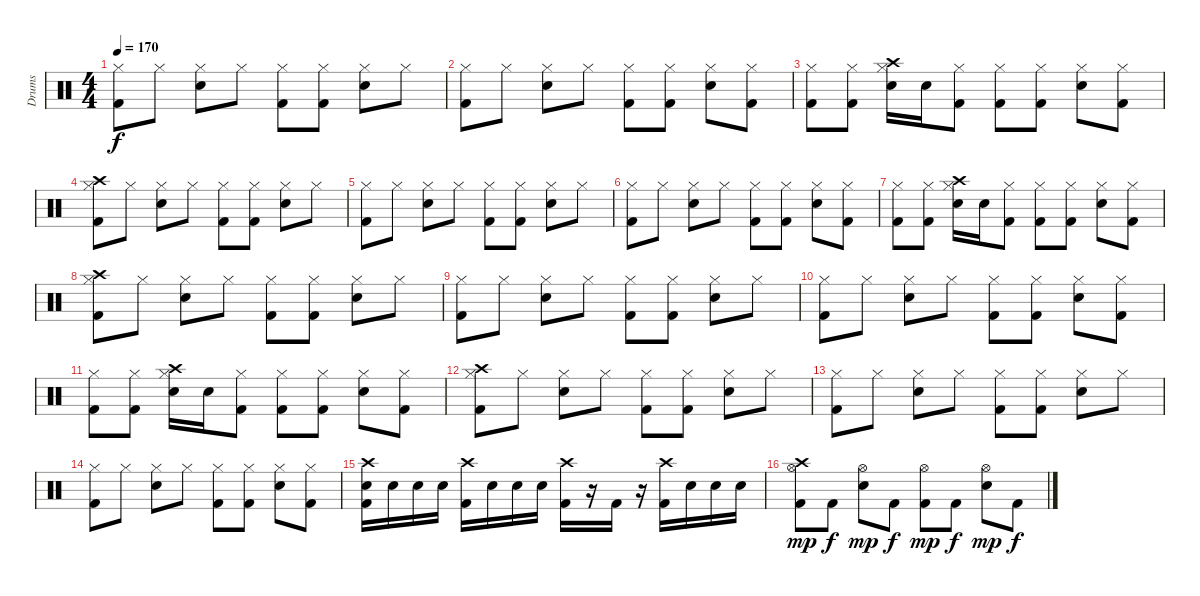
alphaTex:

\track ("Drums" "Drums") {instrument percussion}
\staff {score}
\articulation defaults
\ts (4 4)
\tempo 170
\clef neutral
\ks c
("Hi-Hat (closed)" "Kick (hit) 2").8{dy f} "Hi-Hat (closed)".8 ("Hi-Hat (closed)" "Electric Snare (hit)").8 "Hi-Hat (closed)".8 ("Hi-Hat (closed)" "Kick (hit) 2").8 ("Hi-Hat (closed)" "Kick (hit) 2").8 ("Hi-Hat (closed)" "Electric Snare (hit)").8 "Hi-Hat (closed)".8 |
("Hi-Hat (closed)" "Kick (hit) 2").8 "Hi-Hat (closed)".8 ("Hi-Hat (closed)" "Electric Snare (hit)").8 "Hi-Hat (closed)".8 ("Hi-Hat (closed)" "Kick (hit) 2").8 ("Hi-Hat (closed)" "Kick (hit) 2").8 ("Hi-Hat (closed)" "Electric Snare (hit)").8 ("Hi-Hat (closed)" "Kick (hit) 2").8 |
("Hi-Hat (closed)" "Kick (hit) 2").8 ("Hi-Hat (closed)" "Kick (hit) 2").8 ("Crash high (hit)" "Hi-Hat (closed)" "Electric Snare (hit)").16 "Electric Snare (hit)".16 ("Hi-Hat (closed)" "Kick (hit) 2").8 ("Hi-Hat (closed)" "Kick (hit) 2").8 ("Hi-Hat (closed)" "Kick (hit) 2").8 ("Hi-Hat (closed)" "Electric Snare (hit)").8 ("Hi-Hat (closed)" "Kick (hit) 2").8 |
("Crash high (hit)" "Hi-Hat (closed)" "Kick (hit) 2").8 "Hi-Hat (closed)".8 ("Hi-Hat (closed)" "Electric Snare (hit)").8 "Hi-Hat (closed)".8 ("Hi-Hat (closed)" "Kick (hit) 2").8 ("Hi-Hat (closed)" "Kick (hit) 2").8 ("Hi-Hat (closed)" "Electric Snare (hit)").8 "Hi-Hat (closed)".8 |
("Hi-Hat (closed)" "Kick (hit) 2").8 "Hi-Hat (closed)".8 ("Hi-Hat (closed)" "Electric Snare (hit)").8 "Hi-Hat (closed)".8 ("Hi-Hat (closed)" "Kick (hit) 2").8 ("Hi-Hat (closed)" "Kick (hit) 2").8 ("Hi-Hat (closed)" "Electric Snare (hit)").8 "Hi-Hat (closed)".8 |
("Hi-Hat (closed)" "Kick (hit) 2").8 "Hi-Hat (closed)".8 ("Hi-Hat (closed)" "Electric Snare (hit)").8 "Hi-Hat (closed)".8 ("Hi-Hat (closed)" "Kick (hit) 2").8 ("Hi-Hat (closed)" "Kick (hit) 2").8 ("Hi-Hat (closed)" "Electric Snare (hit)").8 ("Hi-Hat (closed)" "Kick (hit) 2").8 |
("Hi-Hat (closed)" "Kick (hit) 2").8 ("Hi-Hat (closed)" "Kick (hit) 2").8 ("Crash high (hit)" "Hi-Hat (closed)" "Electric Snare (hit)").16 "Electric Snare (hit)".16 ("Hi-Hat (closed)" "Kick (hit) 2").8 ("Hi-Hat (closed)" "Kick (hit) 2").8 ("Hi-Hat (closed)" "Kick (hit) 2").8 ("Hi-Hat (closed)" "Electric Snare (hit)").8 ("Hi-Hat (closed)" "Kick (hit) 2").8 |
("Crash high (hit)" "Hi-Hat (closed)" "Kick (hit) 2").8 "Hi-Hat (closed)".8 ("Hi-Hat (closed)" "Electric Snare (hit)").8 "Hi-Hat (closed)".8 ("Hi-Hat (closed)" "Kick (hit) 2").8 ("Hi-Hat (closed)" "Kick (hit) 2").8 ("Hi-Hat (closed)" "Electric Snare (hit)").8 "Hi-Hat (closed)".8 |
("Hi-Hat (closed)" "Kick (hit) 2").8 "Hi-Hat (closed)".8 ("Hi-Hat (closed)" "Electric Snare (hit)").8 "Hi-Hat (closed)".8 ("Hi-Hat (closed)" "Kick (hit) 2").8 ("Hi-Hat (closed)" "Kick (hit) 2").8 ("Hi-Hat (closed)" "Electric Snare (hit)").8 "Hi-Hat (closed)".8 |
("Hi-Hat (closed)" "Kick (hit) 2").8 "Hi-Hat (closed)".8 ("Hi-Hat (closed)" "Electric Snare (hit)").8 "Hi-Hat (closed)".8 ("Hi-Hat (closed)" "Kick (hit) 2").8 ("Hi-Hat (closed)" "Kick (hit) 2").8 ("Hi-Hat (closed)" "Electric Snare (hit)").8 ("Hi-Hat (closed)" "Kick (hit) 2").8 |
("Hi-Hat (closed)" "Kick (hit) 2").8 ("Hi-Hat (closed)" "Kick (hit) 2").8 ("Crash high (hit)" "Hi-Hat (closed)" "Electric Snare (hit)").16 "Electric Snare (hit)".16 ("Hi-Hat (closed)" "Kick (hit) 2").8 ("Hi-Hat (closed)" "Kick (hit) 2").8 ("Hi-Hat (closed)" "Kick (hit) 2").8 ("Hi-Hat (closed)" "Electric Snare (hit)").8 ("Hi-Hat (closed)" "Kick (hit) 2").8 |
("Crash high (hit)" "Hi-Hat (closed)" "Kick (hit) 2").8 "Hi-Hat (closed)".8 ("Hi-Hat (closed)" "Electric Snare (hit)").8 "Hi-Hat (closed)".8 ("Hi-Hat (closed)" "Kick (hit) 2").8 ("Hi-Hat (closed)" "Kick (hit) 2").8 ("Hi-Hat (closed)" "Electric Snare (hit)").8 "Hi-Hat (closed)".8 |
("Hi-Hat (closed)" "Kick (hit) 2").8 "Hi-Hat (closed)".8 ("Hi-Hat (closed)" "Electric Snare (hit)").8 "Hi-Hat (closed)".8 ("Hi-Hat (closed)" "Kick (hit) 2").8 ("Hi-Hat (closed)" "Kick (hit) 2").8 ("Hi-Hat (closed)" "Electric Snare (hit)").8 "Hi-Hat (closed)".8 |
("Hi-Hat (closed)" "Kick (hit) 2").8 "Hi-Hat (closed)".8 ("Hi-Hat (closed)" "Electric Snare (hit)").8 "Hi-Hat (closed)".8 ("Hi-Hat (closed)" "Kick (hit) 2").8 ("Hi-Hat (closed)" "Kick (hit) 2").8 ("Hi-Hat (closed)" "Electric Snare (hit)").8 ("Hi-Hat (closed)" "Kick (hit) 2").8 |
("Crash high (hit)" "Electric Snare (hit)" "Kick (hit) 2").16 "Electric Snare (hit)".16 "Electric Snare (hit)".16 "Electric Snare (hit)".16 ("Crash high (hit)" "Kick (hit) 2").16 "Electric Snare (hit)".16 "Electric Snare (hit)".16 "Electric Snare (hit)".16 ("Crash high (hit)" "Kick (hit) 2").16 r.16 "Kick (hit) 2".16 r.16 ("Crash high (hit)" "Kick (hit) 2").16 "Electric Snare (hit)".16 "Electric Snare (hit)".16 "Electric Snare (hit)".16 |
("Hi-Hat (open)" "Crash high (hit)" "Kick (hit) 2").8{dy mp} "Kick (hit) 2".8{dy f} ("Hi-Hat (open)" "Electric Snare (hit)").8{dy mp} "Kick (hit) 2".8{dy f} ("Hi-Hat (open)" "Kick (hit) 2").8{dy mp} "Kick (hit) 2".8{dy f} ("Hi-Hat (open)" "Electric Snare (hit)").8{dy mp} "Kick (hit) 2".8{dy f}
